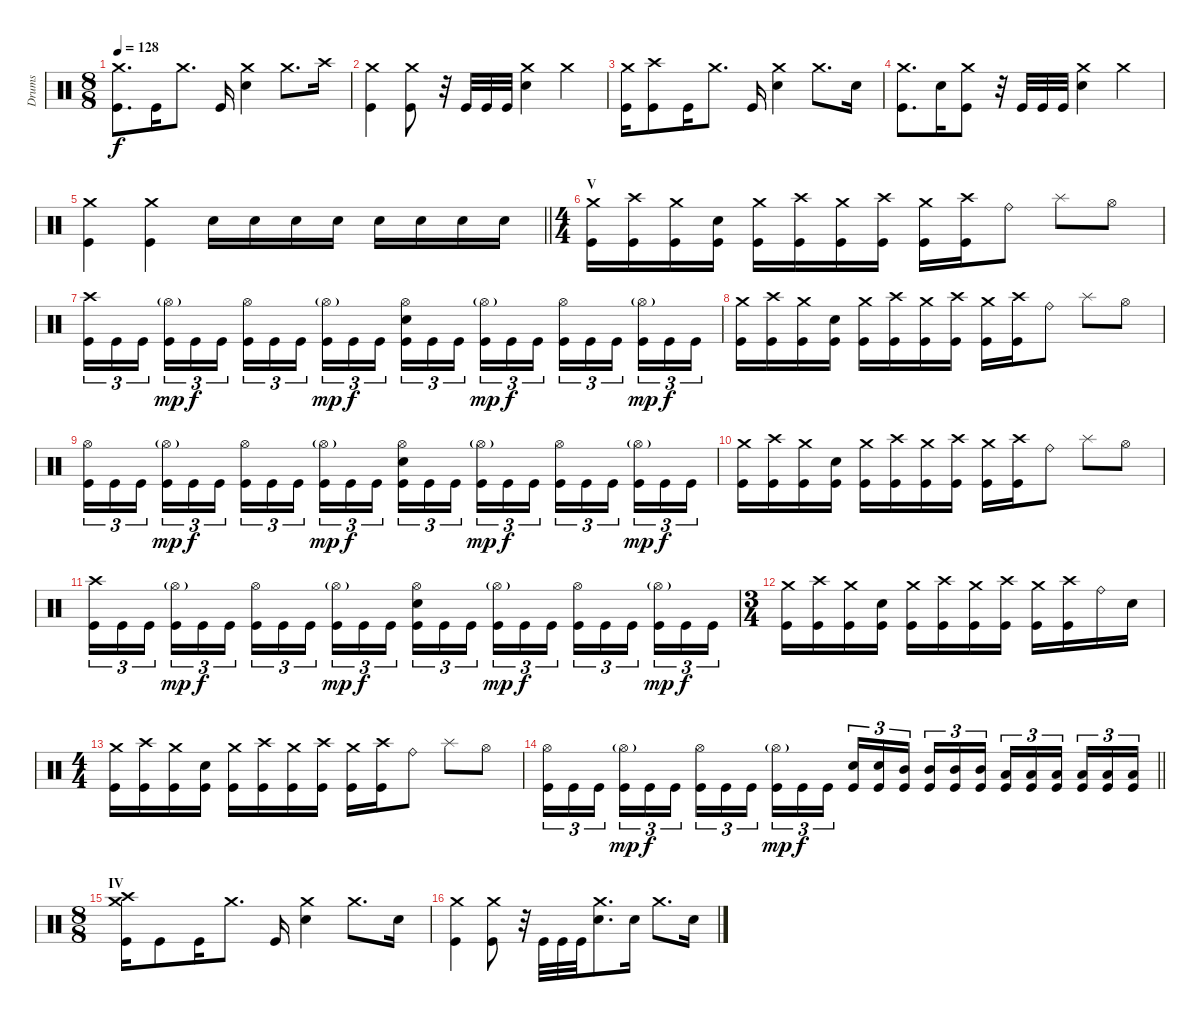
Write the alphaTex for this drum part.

\track ("Drums" "Drums") {instrument percussion}
\staff {score}
\articulation defaults
\ts (8 8)
\tempo 128
\clef neutral
\ks c
("Kick (hit)" "Crash medium (hit)").8{d dy f} "Kick (hit)".16 "Crash medium (hit)".8{d} "Kick (hit)".16 ("Electric Snare (hit)" "Crash medium (hit)").4 "Crash medium (hit)".8{d} "Crash high (hit)".16 |
("Kick (hit)" "Crash medium (hit)").4 ("Kick (hit)" "Crash medium (hit)").8 r.32 "Kick (hit)".32 "Kick (hit)".32 "Kick (hit)".32 ("Electric Snare (hit)" "Crash medium (hit)").4 "Crash medium (hit)".4 |
("Kick (hit)" "Crash medium (hit)").16 ("Kick (hit)" "Crash high (hit)").8 "Kick (hit)".16 "Crash medium (hit)".8{d} "Kick (hit)".16 ("Electric Snare (hit)" "Crash medium (hit)").4 "Crash medium (hit)".8{d} "Electric Snare (hit)".16 |
("Kick (hit)" "Crash medium (hit)").8{d} "Electric Snare (hit)".16 ("Kick (hit)" "Crash medium (hit)").8 r.32 "Kick (hit)".32 "Kick (hit)".32 "Kick (hit)".32 ("Electric Snare (hit)" "Crash medium (hit)").4 "Crash medium (hit)".4 |
\barLineRight lightlight
("Kick (hit)" "Crash medium (hit)").4 ("Kick (hit)" "Crash medium (hit)").4 "Electric Snare (hit)".16 "Electric Snare (hit)".16 "Electric Snare (hit)".16 "Electric Snare (hit)".16 "Electric Snare (hit)".16 "Electric Snare (hit)".16 "Electric Snare (hit)".16 "Electric Snare (hit)".16 |
\ts (4 4)
\section ("" "V")
("Kick (hit)" "Crash medium (hit)").16 ("Kick (hit)" "Crash high (hit)").16 ("Kick (hit)" "Crash medium (hit)").16 ("Kick (hit)" "Electric Snare (hit)").16 ("Kick (hit)" "Crash medium (hit)").16 ("Kick (hit)" "Crash high (hit)").16 ("Kick (hit)" "Crash medium (hit)").16 ("Kick (hit)" "Crash high (hit)").16 ("Kick (hit)" "Crash medium (hit)").16 ("Kick (hit)" "Crash high (hit)").16 "Ride (bell)".8 "Splash (hit)".8 "Hi-Hat (open)".8 |
("Kick (hit)" "Crash high (hit)").16{tu (3 2)} "Kick (hit)".16{tu (3 2)} "Kick (hit)".16{tu (3 2) beam splitsecondary} ("Kick (hit)" "Hi-Hat (open)"{g}).16{tu (3 2) dy mp} "Kick (hit)".16{tu (3 2) dy f} "Kick (hit)".16{tu (3 2)} ("Kick (hit)" "Hi-Hat (open)").16{tu (3 2)} "Kick (hit)".16{tu (3 2)} "Kick (hit)".16{tu (3 2) beam splitsecondary} ("Kick (hit)" "Hi-Hat (open)"{g}).16{tu (3 2) dy mp} "Kick (hit)".16{tu (3 2) dy f} "Kick (hit)".16{tu (3 2)} ("Kick (hit)" "Electric Snare (hit)" "Hi-Hat (open)").16{tu (3 2)} "Kick (hit)".16{tu (3 2)} "Kick (hit)".16{tu (3 2) beam splitsecondary} ("Kick (hit)" "Hi-Hat (open)"{g}).16{tu (3 2) dy mp} "Kick (hit)".16{tu (3 2) dy f} "Kick (hit)".16{tu (3 2)} ("Kick (hit)" "Hi-Hat (open)").16{tu (3 2)} "Kick (hit)".16{tu (3 2)} "Kick (hit)".16{tu (3 2) beam splitsecondary} ("Kick (hit)" "Hi-Hat (open)"{g}).16{tu (3 2) dy mp} "Kick (hit)".16{tu (3 2) dy f} "Kick (hit)".16{tu (3 2)} |
("Kick (hit)" "Crash medium (hit)").16 ("Kick (hit)" "Crash high (hit)").16 ("Kick (hit)" "Crash medium (hit)").16 ("Kick (hit)" "Electric Snare (hit)").16 ("Kick (hit)" "Crash medium (hit)").16 ("Kick (hit)" "Crash high (hit)").16 ("Kick (hit)" "Crash medium (hit)").16 ("Kick (hit)" "Crash high (hit)").16 ("Kick (hit)" "Crash medium (hit)").16 ("Kick (hit)" "Crash high (hit)").16 "Ride (bell)".8 "Splash (hit)".8 "Hi-Hat (open)".8 |
("Kick (hit)" "Hi-Hat (open)").16{tu (3 2)} "Kick (hit)".16{tu (3 2)} "Kick (hit)".16{tu (3 2) beam splitsecondary} ("Kick (hit)" "Hi-Hat (open)"{g}).16{tu (3 2) dy mp} "Kick (hit)".16{tu (3 2) dy f} "Kick (hit)".16{tu (3 2)} ("Kick (hit)" "Hi-Hat (open)").16{tu (3 2)} "Kick (hit)".16{tu (3 2)} "Kick (hit)".16{tu (3 2) beam splitsecondary} ("Kick (hit)" "Hi-Hat (open)"{g}).16{tu (3 2) dy mp} "Kick (hit)".16{tu (3 2) dy f} "Kick (hit)".16{tu (3 2)} ("Kick (hit)" "Electric Snare (hit)" "Hi-Hat (open)").16{tu (3 2)} "Kick (hit)".16{tu (3 2)} "Kick (hit)".16{tu (3 2) beam splitsecondary} ("Kick (hit)" "Hi-Hat (open)"{g}).16{tu (3 2) dy mp} "Kick (hit)".16{tu (3 2) dy f} "Kick (hit)".16{tu (3 2)} ("Kick (hit)" "Hi-Hat (open)").16{tu (3 2)} "Kick (hit)".16{tu (3 2)} "Kick (hit)".16{tu (3 2) beam splitsecondary} ("Kick (hit)" "Hi-Hat (open)"{g}).16{tu (3 2) dy mp} "Kick (hit)".16{tu (3 2) dy f} "Kick (hit)".16{tu (3 2)} |
("Kick (hit)" "Crash medium (hit)").16 ("Kick (hit)" "Crash high (hit)").16 ("Kick (hit)" "Crash medium (hit)").16 ("Kick (hit)" "Electric Snare (hit)").16 ("Kick (hit)" "Crash medium (hit)").16 ("Kick (hit)" "Crash high (hit)").16 ("Kick (hit)" "Crash medium (hit)").16 ("Kick (hit)" "Crash high (hit)").16 ("Kick (hit)" "Crash medium (hit)").16 ("Kick (hit)" "Crash high (hit)").16 "Ride (bell)".8 "Splash (hit)".8 "Hi-Hat (open)".8 |
("Kick (hit)" "Crash high (hit)").16{tu (3 2)} "Kick (hit)".16{tu (3 2)} "Kick (hit)".16{tu (3 2) beam splitsecondary} ("Kick (hit)" "Hi-Hat (open)"{g}).16{tu (3 2) dy mp} "Kick (hit)".16{tu (3 2) dy f} "Kick (hit)".16{tu (3 2)} ("Kick (hit)" "Hi-Hat (open)").16{tu (3 2)} "Kick (hit)".16{tu (3 2)} "Kick (hit)".16{tu (3 2) beam splitsecondary} ("Kick (hit)" "Hi-Hat (open)"{g}).16{tu (3 2) dy mp} "Kick (hit)".16{tu (3 2) dy f} "Kick (hit)".16{tu (3 2)} ("Kick (hit)" "Electric Snare (hit)" "Hi-Hat (open)").16{tu (3 2)} "Kick (hit)".16{tu (3 2)} "Kick (hit)".16{tu (3 2) beam splitsecondary} ("Kick (hit)" "Hi-Hat (open)"{g}).16{tu (3 2) dy mp} "Kick (hit)".16{tu (3 2) dy f} "Kick (hit)".16{tu (3 2)} ("Kick (hit)" "Hi-Hat (open)").16{tu (3 2)} "Kick (hit)".16{tu (3 2)} "Kick (hit)".16{tu (3 2) beam splitsecondary} ("Kick (hit)" "Hi-Hat (open)"{g}).16{tu (3 2) dy mp} "Kick (hit)".16{tu (3 2) dy f} "Kick (hit)".16{tu (3 2)} |
\ts (3 4)
("Kick (hit)" "Crash medium (hit)").16 ("Kick (hit)" "Crash high (hit)").16 ("Kick (hit)" "Crash medium (hit)").16 ("Kick (hit)" "Electric Snare (hit)").16 ("Kick (hit)" "Crash medium (hit)").16 ("Kick (hit)" "Crash high (hit)").16 ("Kick (hit)" "Crash medium (hit)").16 ("Kick (hit)" "Crash high (hit)").16 ("Kick (hit)" "Crash medium (hit)").16 ("Kick (hit)" "Crash high (hit)").16 "Ride (bell)".16 "Electric Snare (hit)".16 |
\ts (4 4)
("Kick (hit)" "Crash medium (hit)").16 ("Kick (hit)" "Crash high (hit)").16 ("Kick (hit)" "Crash medium (hit)").16 ("Kick (hit)" "Electric Snare (hit)").16 ("Kick (hit)" "Crash medium (hit)").16 ("Kick (hit)" "Crash high (hit)").16 ("Kick (hit)" "Crash medium (hit)").16 ("Kick (hit)" "Crash high (hit)").16 ("Kick (hit)" "Crash medium (hit)").16 ("Kick (hit)" "Crash high (hit)").16 "Ride (bell)".8 "Splash (hit)".8 "Hi-Hat (open)".8 |
\barLineRight lightlight
("Kick (hit)" "Hi-Hat (open)").16{tu (3 2)} "Kick (hit)".16{tu (3 2)} "Kick (hit)".16{tu (3 2) beam splitsecondary} ("Kick (hit)" "Hi-Hat (open)"{g}).16{tu (3 2) dy mp} "Kick (hit)".16{tu (3 2) dy f} "Kick (hit)".16{tu (3 2)} ("Kick (hit)" "Hi-Hat (open)").16{tu (3 2)} "Kick (hit)".16{tu (3 2)} "Kick (hit)".16{tu (3 2) beam splitsecondary} ("Kick (hit)" "Hi-Hat (open)"{g}).16{tu (3 2) dy mp} "Kick (hit)".16{tu (3 2) dy f} "Kick (hit)".16{tu (3 2)} ("Kick (hit)" "Electric Snare (hit)").16{tu (3 2)} ("Kick (hit)" "Electric Snare (hit)").16{tu (3 2)} ("Kick (hit)" "Mid Tom (hit)").16{tu (3 2) beam splitsecondary} ("Kick (hit)" "Mid Tom (hit)").16{tu (3 2)} ("Kick (hit)" "Mid Tom (hit)").16{tu (3 2)} ("Kick (hit)" "Mid Tom (hit)").16{tu (3 2)} ("Kick (hit)" "Low Tom (hit)").16{tu (3 2)} ("Kick (hit)" "Low Tom (hit)").16{tu (3 2)} ("Kick (hit)" "Low Tom (hit)").16{tu (3 2) beam splitsecondary} ("Kick (hit)" "Low Tom (hit)").16{tu (3 2)} ("Kick (hit)" "Low Tom (hit)").16{tu (3 2)} ("Kick (hit)" "Low Tom (hit)").16{tu (3 2)} |
\ts (8 8)
\section ("" "IV")
("Kick (hit)" "Crash high (hit)" "Crash medium (hit)").16 "Kick (hit)".8 "Kick (hit)".16 "Crash medium (hit)".8{d} "Kick (hit)".16 ("Electric Snare (hit)" "Crash medium (hit)").4 "Crash medium (hit)".8{d} "Electric Snare (hit)".16 |
("Kick (hit)" "Crash medium (hit)").4 ("Kick (hit)" "Crash medium (hit)").8 r.32 "Kick (hit)".32 "Kick (hit)".32 "Kick (hit)".32 ("Electric Snare (hit)" "Crash medium (hit)").8{d} "Electric Snare (hit)".16 "Crash medium (hit)".8{d} "Electric Snare (hit)".16
